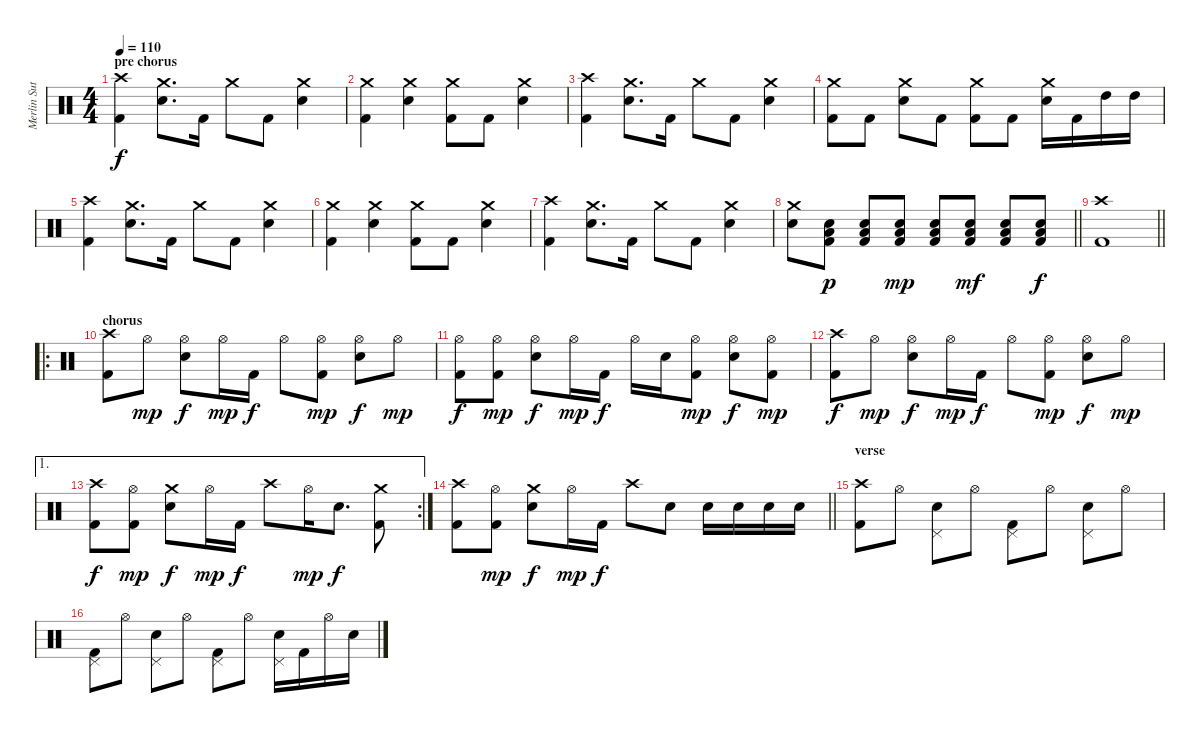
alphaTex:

\track ("Merlin Sutter" "Merlin Sut") {instrument percussion}
\staff {score}
\articulation defaults
\ts (4 4)
\section ("" "pre chorus")
\tempo 110
\clef neutral
\ks c
("Crash high (hit)" "Kick (hit) 2").4{dy f} ("Crash medium (hit)" "Snare (hit) 2").8{d} "Kick (hit) 2".16 "Crash medium (hit)".8 "Kick (hit) 2".8 ("Crash medium (hit)" "Snare (hit) 2").4 |
("Crash medium (hit)" "Kick (hit) 2").4 ("Crash medium (hit)" "Snare (hit) 2").4 ("Crash medium (hit)" "Kick (hit) 2").8 "Kick (hit) 2".8 ("Crash medium (hit)" "Snare (hit) 2").4 |
("Crash high (hit)" "Kick (hit) 2").4 ("Crash medium (hit)" "Snare (hit) 2").8{d} "Kick (hit) 2".16 "Crash medium (hit)".8 "Kick (hit) 2".8 ("Crash medium (hit)" "Snare (hit) 2").4 |
("Crash medium (hit)" "Kick (hit) 2").8 "Kick (hit) 2".8 ("Crash medium (hit)" "Snare (hit) 2").8 "Kick (hit) 2".8 ("Crash medium (hit)" "Kick (hit) 2").8 "Kick (hit) 2".8 ("Crash medium (hit)" "Snare (hit) 2").16 "Kick (hit) 2".16 "High Tom (hit)".16 "High Tom (hit)".16 |
("Crash high (hit)" "Kick (hit) 2").4 ("Crash medium (hit)" "Snare (hit) 2").8{d} "Kick (hit) 2".16 "Crash medium (hit)".8 "Kick (hit) 2".8 ("Crash medium (hit)" "Snare (hit) 2").4 |
("Crash medium (hit)" "Kick (hit) 2").4 ("Crash medium (hit)" "Snare (hit) 2").4 ("Crash medium (hit)" "Kick (hit) 2").8 "Kick (hit) 2".8 ("Crash medium (hit)" "Snare (hit) 2").4 |
("Crash high (hit)" "Kick (hit) 2").4 ("Crash medium (hit)" "Snare (hit) 2").8{d} "Kick (hit) 2".16 "Crash medium (hit)".8 "Kick (hit) 2".8 ("Crash medium (hit)" "Snare (hit) 2").4 |
\barLineRight lightlight
("Crash medium (hit)" "Snare (hit) 2").8 ("Low Tom (hit)" "Snare (hit) 2" "Kick (hit) 2").8{dy p} ("Low Tom (hit)" "Snare (hit) 2" "Kick (hit) 2").8 ("Low Tom (hit)" "Snare (hit) 2" "Kick (hit) 2").8{dy mp} ("Low Tom (hit)" "Snare (hit) 2" "Kick (hit) 2").8 ("Low Tom (hit)" "Snare (hit) 2" "Kick (hit) 2").8{dy mf} ("Low Tom (hit)" "Snare (hit) 2" "Kick (hit) 2").8 ("Low Tom (hit)" "Snare (hit) 2" "Kick (hit) 2").8{dy f} |
\section ("" "")
\barLineRight lightlight
("Crash high (hit)" "Kick (hit) 2").1 |
\ro
\section ("" "chorus")
("Crash high (hit)" "Kick (hit) 2").8 "Hi-Hat (open)".8{dy mp} ("Hi-Hat (open)" "Snare (hit) 2").8{dy f} "Hi-Hat (open)".16{dy mp} "Kick (hit) 2".16{dy f} "Hi-Hat (open)".8 ("Hi-Hat (open)" "Kick (hit) 2").8{dy mp} ("Hi-Hat (open)" "Snare (hit) 2").8{dy f} "Hi-Hat (open)".8{dy mp} |
("Hi-Hat (open)" "Kick (hit) 2").8{dy f} ("Hi-Hat (open)" "Kick (hit) 2").8{dy mp} ("Hi-Hat (open)" "Snare (hit) 2").8{dy f} "Hi-Hat (open)".16{dy mp} "Kick (hit) 2".16{dy f} "Hi-Hat (open)".16 "Snare (hit) 2".16 ("Hi-Hat (open)" "Kick (hit) 2").8{dy mp} ("Hi-Hat (open)" "Snare (hit) 2").8{dy f} ("Hi-Hat (open)" "Kick (hit) 2").8{dy mp} |
("Crash high (hit)" "Kick (hit) 2").8{dy f} "Hi-Hat (open)".8{dy mp} ("Hi-Hat (open)" "Snare (hit) 2").8{dy f} "Hi-Hat (open)".16{dy mp} "Kick (hit) 2".16{dy f} "Hi-Hat (open)".8 ("Hi-Hat (open)" "Kick (hit) 2").8{dy mp} ("Hi-Hat (open)" "Snare (hit) 2").8{dy f} "Hi-Hat (open)".8{dy mp} |
\ae 1
\rc 2
("Crash high (hit)" "Kick (hit) 2").8{dy f} ("Hi-Hat (open)" "Kick (hit) 2").8{dy mp} ("Crash medium (hit)" "Snare (hit) 2").8{dy f} "Hi-Hat (open)".16{dy mp} "Kick (hit) 2".16{dy f} "Crash high (hit)".8 "Hi-Hat (open)".16{dy mp} "Snare (hit) 2".8{d dy f} ("Crash medium (hit)" "Kick (hit) 2").8 |
\barLineRight lightlight
("Crash high (hit)" "Kick (hit) 2").8 ("Hi-Hat (open)" "Kick (hit) 2").8{dy mp} ("Crash medium (hit)" "Snare (hit) 2").8{dy f} "Hi-Hat (open)".16{dy mp} "Kick (hit) 2".16{dy f} "Crash high (hit)".8 "Snare (hit) 2".8 "Snare (hit) 2".16 "Snare (hit) 2".16 "Snare (hit) 2".16 "Snare (hit) 2".16 |
\section ("" "verse")
("Crash high (hit)" "Kick (hit) 2").8 "Hi-Hat (open)".8 ("Pedal Hi-Hat (hit)" "Snare (hit) 2").8 "Hi-Hat (open)".8 ("Pedal Hi-Hat (hit)" "Kick (hit) 2").8 "Hi-Hat (open)".8 ("Pedal Hi-Hat (hit)" "Snare (hit) 2").8 "Hi-Hat (open)".8 |
("Pedal Hi-Hat (hit)" "Kick (hit) 2").8 "Hi-Hat (open)".8 ("Pedal Hi-Hat (hit)" "Snare (hit) 2").8 "Hi-Hat (open)".8 ("Pedal Hi-Hat (hit)" "Kick (hit) 2").8 "Hi-Hat (open)".8 ("Pedal Hi-Hat (hit)" "Snare (hit) 2").16 "Kick (hit) 2".16 "Hi-Hat (open)".16 "Snare (hit) 2".16
